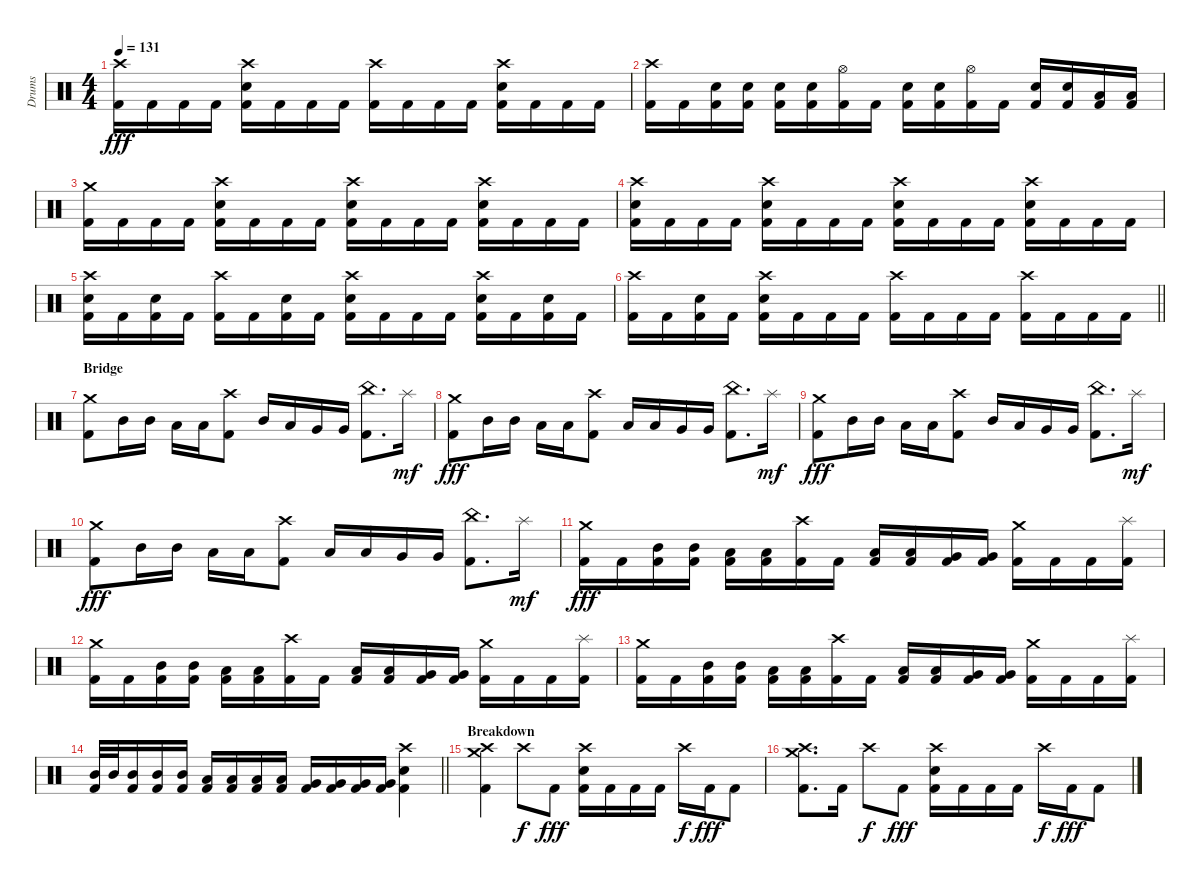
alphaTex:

\track ("Drums" "Drums") {instrument percussion}
\staff {score}
\articulation defaults
\ts (4 4)
\tempo 131
\clef neutral
\ks c
("Crash high (hit)" "Kick (hit) 2").16{dy fff} "Kick (hit) 2".16 "Kick (hit) 2".16 "Kick (hit) 2".16 ("Crash high (hit)" "Electric Snare (hit)" "Kick (hit) 2").16 "Kick (hit) 2".16 "Kick (hit) 2".16 "Kick (hit) 2".16 ("Crash high (hit)" "Kick (hit) 2").16 "Kick (hit) 2".16 "Kick (hit) 2".16 "Kick (hit) 2".16 ("Crash high (hit)" "Electric Snare (hit)" "Kick (hit) 2").16 "Kick (hit) 2".16 "Kick (hit) 2".16 "Kick (hit) 2".16 |
("Crash high (hit)" "Kick (hit) 2").16 "Kick (hit) 2".16 ("Electric Snare (hit)" "Kick (hit) 2").16 ("Electric Snare (hit)" "Kick (hit) 2").16 ("Electric Snare (hit)" "Kick (hit) 2").16 ("Electric Snare (hit)" "Kick (hit) 2").16 ("Hi-Hat (open)" "Kick (hit) 2").16 "Kick (hit) 2".16 ("Electric Snare (hit)" "Kick (hit) 2").16 ("Electric Snare (hit)" "Kick (hit) 2").16 ("Hi-Hat (open)" "Kick (hit) 2").16 "Kick (hit) 2".16 ("Electric Snare (hit)" "Kick (hit) 2").16 ("Electric Snare (hit)" "Kick (hit) 2").16 ("Low Tom (hit)" "Kick (hit) 2").16 ("Low Tom (hit)" "Kick (hit) 2").16 |
("Crash medium (hit)" "Kick (hit) 2").16 "Kick (hit) 2".16 "Kick (hit) 2".16 "Kick (hit) 2".16 ("Crash high (hit)" "Electric Snare (hit)" "Kick (hit) 2").16 "Kick (hit) 2".16 "Kick (hit) 2".16 "Kick (hit) 2".16 ("Crash high (hit)" "Electric Snare (hit)" "Kick (hit) 2").16 "Kick (hit) 2".16 "Kick (hit) 2".16 "Kick (hit) 2".16 ("Crash high (hit)" "Electric Snare (hit)" "Kick (hit) 2").16 "Kick (hit) 2".16 "Kick (hit) 2".16 "Kick (hit) 2".16 |
("Crash high (hit)" "Electric Snare (hit)" "Kick (hit) 2").16 "Kick (hit) 2".16 "Kick (hit) 2".16 "Kick (hit) 2".16 ("Crash high (hit)" "Electric Snare (hit)" "Kick (hit) 2").16 "Kick (hit) 2".16 "Kick (hit) 2".16 "Kick (hit) 2".16 ("Crash high (hit)" "Electric Snare (hit)" "Kick (hit) 2").16 "Kick (hit) 2".16 "Kick (hit) 2".16 "Kick (hit) 2".16 ("Crash high (hit)" "Electric Snare (hit)" "Kick (hit) 2").16 "Kick (hit) 2".16 "Kick (hit) 2".16 "Kick (hit) 2".16 |
("Crash high (hit)" "Electric Snare (hit)" "Kick (hit) 2").16 "Kick (hit) 2".16 ("Electric Snare (hit)" "Kick (hit) 2").16 "Kick (hit) 2".16 ("Crash high (hit)" "Kick (hit) 2").16 "Kick (hit) 2".16 ("Electric Snare (hit)" "Kick (hit) 2").16 "Kick (hit) 2".16 ("Crash high (hit)" "Electric Snare (hit)" "Kick (hit) 2").16 "Kick (hit) 2".16 "Kick (hit) 2".16 "Kick (hit) 2".16 ("Crash high (hit)" "Electric Snare (hit)" "Kick (hit) 2").16 "Kick (hit) 2".16 ("Electric Snare (hit)" "Kick (hit) 2").16 "Kick (hit) 2".16 |
\barLineRight lightlight
("Crash high (hit)" "Kick (hit) 2").16 "Kick (hit) 2".16 ("Electric Snare (hit)" "Kick (hit) 2").16 "Kick (hit) 2".16 ("Crash high (hit)" "Electric Snare (hit)" "Kick (hit) 2").16 "Kick (hit) 2".16 "Kick (hit) 2".16 "Kick (hit) 2".16 ("Crash high (hit)" "Kick (hit) 2").16 "Kick (hit) 2".16 "Kick (hit) 2".16 "Kick (hit) 2".16 ("Crash high (hit)" "Kick (hit) 2").16 "Kick (hit) 2".16 "Kick (hit) 2".16 "Kick (hit) 2".16 |
\section ("" "Bridge")
("Crash medium (hit)" "Kick (hit) 2").8 "Mid Tom (hit)".16 "Mid Tom (hit)".16 "Low Tom (hit)".16 "Low Tom (hit)".16 ("Crash high (hit)" "Kick (hit) 2").8 "Mid Tom (hit)".16 "Low Tom (hit)".16 "Very Low Tom (hit)".16 "Very Low Tom (hit)".16 ("China (hit)" "Kick (hit) 2").8{d} "Splash (hit)".16{dy mf} |
("Crash medium (hit)" "Kick (hit) 2").8{dy fff} "Mid Tom (hit)".16 "Mid Tom (hit)".16 "Low Tom (hit)".16 "Low Tom (hit)".16 ("Crash high (hit)" "Kick (hit) 2").8 "Low Tom (hit)".16 "Low Tom (hit)".16 "Very Low Tom (hit)".16 "Very Low Tom (hit)".16 ("China (hit)" "Kick (hit) 2").8{d} "Splash (hit)".16{dy mf} |
("Crash medium (hit)" "Kick (hit) 2").8{dy fff} "Mid Tom (hit)".16 "Mid Tom (hit)".16 "Low Tom (hit)".16 "Low Tom (hit)".16 ("Crash high (hit)" "Kick (hit) 2").8 "Mid Tom (hit)".16 "Low Tom (hit)".16 "Very Low Tom (hit)".16 "Very Low Tom (hit)".16 ("China (hit)" "Kick (hit) 2").8{d} "Splash (hit)".16{dy mf} |
("Crash medium (hit)" "Kick (hit) 2").8{dy fff} "Mid Tom (hit)".16 "Mid Tom (hit)".16 "Low Tom (hit)".16 "Low Tom (hit)".16 ("Crash high (hit)" "Kick (hit) 2").8 "Low Tom (hit)".16 "Low Tom (hit)".16 "Very Low Tom (hit)".16 "Very Low Tom (hit)".16 ("China (hit)" "Kick (hit) 2").8{d} "Splash (hit)".16{dy mf} |
("Crash medium (hit)" "Kick (hit) 2").16{dy fff} "Kick (hit) 2".16 ("Mid Tom (hit)" "Kick (hit) 2").16 ("Mid Tom (hit)" "Kick (hit) 2").16 ("Low Tom (hit)" "Kick (hit) 2").16 ("Low Tom (hit)" "Kick (hit) 2").16 ("Crash high (hit)" "Kick (hit) 2").16 "Kick (hit) 2".16 ("Low Tom (hit)" "Kick (hit) 2").16 ("Low Tom (hit)" "Kick (hit) 2").16 ("Very Low Tom (hit)" "Kick (hit) 2").16 ("Very Low Tom (hit)" "Kick (hit) 2").16 ("Crash medium (hit)" "Kick (hit) 2").16 "Kick (hit) 2".16 "Kick (hit) 2".16 ("Splash (hit)" "Kick (hit) 2").16 |
("Crash medium (hit)" "Kick (hit) 2").16 "Kick (hit) 2".16 ("Mid Tom (hit)" "Kick (hit) 2").16 ("Mid Tom (hit)" "Kick (hit) 2").16 ("Low Tom (hit)" "Kick (hit) 2").16 ("Low Tom (hit)" "Kick (hit) 2").16 ("Crash high (hit)" "Kick (hit) 2").16 "Kick (hit) 2".16 ("Low Tom (hit)" "Kick (hit) 2").16 ("Low Tom (hit)" "Kick (hit) 2").16 ("Very Low Tom (hit)" "Kick (hit) 2").16 ("Very Low Tom (hit)" "Kick (hit) 2").16 ("Crash medium (hit)" "Kick (hit) 2").16 "Kick (hit) 2".16 "Kick (hit) 2".16 ("Splash (hit)" "Kick (hit) 2").16 |
("Crash medium (hit)" "Kick (hit) 2").16 "Kick (hit) 2".16 ("Mid Tom (hit)" "Kick (hit) 2").16 ("Mid Tom (hit)" "Kick (hit) 2").16 ("Low Tom (hit)" "Kick (hit) 2").16 ("Low Tom (hit)" "Kick (hit) 2").16 ("Crash high (hit)" "Kick (hit) 2").16 "Kick (hit) 2".16 ("Low Tom (hit)" "Kick (hit) 2").16 ("Low Tom (hit)" "Kick (hit) 2").16 ("Very Low Tom (hit)" "Kick (hit) 2").16 ("Very Low Tom (hit)" "Kick (hit) 2").16 ("Crash medium (hit)" "Kick (hit) 2").16 "Kick (hit) 2".16 "Kick (hit) 2".16 ("Splash (hit)" "Kick (hit) 2").16 |
\barLineRight lightlight
("Mid Tom (hit)" "Kick (hit) 2").32 "Mid Tom (hit)".32 ("Mid Tom (hit)" "Kick (hit) 2").16 ("Mid Tom (hit)" "Kick (hit) 2").16 ("Mid Tom (hit)" "Kick (hit) 2").16 ("Low Tom (hit)" "Kick (hit) 2").16 ("Low Tom (hit)" "Kick (hit) 2").16 ("Low Tom (hit)" "Kick (hit) 2").16 ("Low Tom (hit)" "Kick (hit) 2").16 ("Very Low Tom (hit)" "Kick (hit) 2").16 ("Very Low Tom (hit)" "Kick (hit) 2").16 ("Very Low Tom (hit)" "Kick (hit) 2").16 ("Very Low Tom (hit)" "Kick (hit) 2").16 ("Crash high (hit)" "Electric Snare (hit)" "Kick (hit) 2").4 |
\section ("" "Breakdown")
("Crash medium (hit)" "Crash high (hit)" "Kick (hit) 2").4 "Crash high (hit)".8{dy f} "Kick (hit) 2".8{dy fff} ("Crash high (hit)" "Electric Snare (hit)" "Kick (hit) 2").16 "Kick (hit) 2".16 "Kick (hit) 2".16 "Kick (hit) 2".16 "Crash high (hit)".16{dy f} "Kick (hit) 2".16{dy fff} "Kick (hit) 2".8 |
("Crash medium (hit)" "Crash high (hit)" "Kick (hit) 2").8{d} "Kick (hit) 2".16 "Crash high (hit)".8{dy f} "Kick (hit) 2".8{dy fff} ("Crash high (hit)" "Electric Snare (hit)" "Kick (hit) 2").16 "Kick (hit) 2".16 "Kick (hit) 2".16 "Kick (hit) 2".16 "Crash high (hit)".16{dy f} "Kick (hit) 2".16{dy fff} "Kick (hit) 2".8
